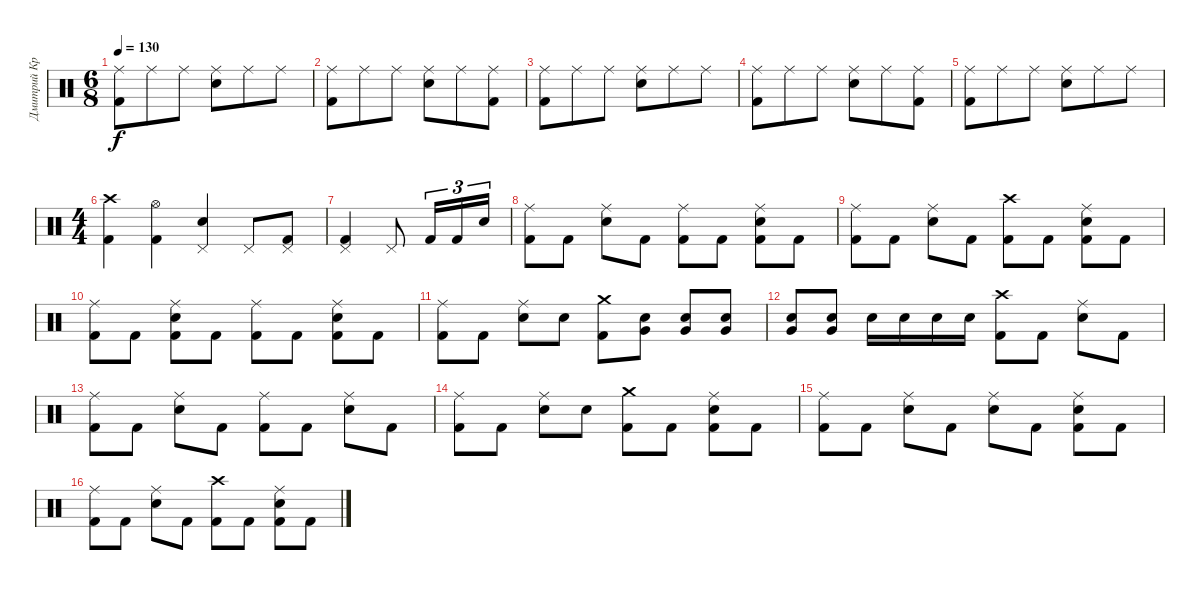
\track ("Дмитрий Кривенков" "Дмитрий Кр") {instrument percussion}
\staff {score}
\articulation defaults
\ts (6 8)
\tempo 130
\clef neutral
\ks c
("Ride (middle)" "Kick (hit) 2").8{dy f} "Ride (middle)".8 "Ride (middle)".8 ("Ride (middle)" "Electric Snare (hit)").8 "Ride (middle)".8 "Ride (middle)".8 |
("Ride (middle)" "Kick (hit) 2").8 "Ride (middle)".8 "Ride (middle)".8 ("Ride (middle)" "Electric Snare (hit)").8 "Ride (middle)".8 ("Ride (middle)" "Kick (hit) 2").8 |
("Ride (middle)" "Kick (hit) 2").8 "Ride (middle)".8 "Ride (middle)".8 ("Ride (middle)" "Electric Snare (hit)").8 "Ride (middle)".8 "Ride (middle)".8 |
("Ride (middle)" "Kick (hit) 2").8 "Ride (middle)".8 "Ride (middle)".8 ("Ride (middle)" "Electric Snare (hit)").8 "Ride (middle)".8 ("Ride (middle)" "Kick (hit) 2").8 |
("Ride (middle)" "Kick (hit) 2").8 "Ride (middle)".8 "Ride (middle)".8 ("Ride (middle)" "Electric Snare (hit)").8 "Ride (middle)".8 "Ride (middle)".8 |
\ts (4 4)
("Kick (hit) 2" "Crash high (hit)").4 ("Kick (hit) 2" "Hi-Hat (open)").4 ("Electric Snare (hit)" "Pedal Hi-Hat (hit)").4 "Pedal Hi-Hat (hit)".8 ("Kick (hit) 2" "Pedal Hi-Hat (hit)").8 |
("Kick (hit) 2" "Pedal Hi-Hat (hit)").4 "Pedal Hi-Hat (hit)".8 "Kick (hit) 2".16{tu (3 2)} "Kick (hit) 2".16{tu (3 2)} "Electric Snare (hit)".16{tu (3 2)} |
("Kick (hit) 2" "Ride (middle)").8 "Kick (hit) 2".8 ("Ride (middle)" "Electric Snare (hit)").8 "Kick (hit) 2".8 ("Ride (middle)" "Kick (hit) 2").8 "Kick (hit) 2".8 ("Ride (middle)" "Electric Snare (hit)" "Kick (hit) 2").8 "Kick (hit) 2".8 |
("Ride (middle)" "Kick (hit) 2").8 "Kick (hit) 2".8 ("Ride (middle)" "Electric Snare (hit)").8 "Kick (hit) 2".8 ("Kick (hit) 2" "Crash high (hit)").8 "Kick (hit) 2".8 ("Ride (middle)" "Kick (hit) 2" "Electric Snare (hit)").8 "Kick (hit) 2".8 |
("Ride (middle)" "Kick (hit) 2").8 "Kick (hit) 2".8 ("Kick (hit) 2" "Electric Snare (hit)" "Ride (middle)").8 "Kick (hit) 2".8 ("Ride (middle)" "Kick (hit) 2").8 "Kick (hit) 2".8 ("Kick (hit) 2" "Electric Snare (hit)" "Ride (middle)").8 "Kick (hit) 2".8 |
("Kick (hit) 2" "Ride (middle)").8 "Kick (hit) 2".8 ("Ride (middle)" "Electric Snare (hit)").8 "Electric Snare (hit)".8 ("Kick (hit) 2" "Crash medium (hit)").8 ("Electric Snare (hit)" "Very Low Tom (hit)").8 ("Very Low Tom (hit)" "Electric Snare (hit)").8 ("Electric Snare (hit)" "Very Low Tom (hit)").8 |
("Electric Snare (hit)" "Very Low Tom (hit)").8 ("Very Low Tom (hit)" "Electric Snare (hit)").8 "Electric Snare (hit)".16 "Electric Snare (hit)".16 "Electric Snare (hit)".16 "Electric Snare (hit)".16 ("Crash high (hit)" "Kick (hit) 2").8 "Kick (hit) 2".8 ("Ride (middle)" "Electric Snare (hit)").8 "Kick (hit) 2".8 |
("Ride (middle)" "Kick (hit) 2").8 "Kick (hit) 2".8 ("Ride (middle)" "Electric Snare (hit)").8 "Kick (hit) 2".8 ("Kick (hit) 2" "Ride (middle)").8 "Kick (hit) 2".8 ("Ride (middle)" "Electric Snare (hit)").8 "Kick (hit) 2".8 |
("Kick (hit) 2" "Ride (middle)").8 "Kick (hit) 2".8 ("Electric Snare (hit)" "Ride (middle)").8 "Electric Snare (hit)".8 ("Crash medium (hit)" "Kick (hit) 2").8 "Kick (hit) 2".8 ("Ride (middle)" "Kick (hit) 2" "Electric Snare (hit)").8 "Kick (hit) 2".8 |
("Kick (hit) 2" "Ride (middle)").8 "Kick (hit) 2".8 ("Ride (middle)" "Electric Snare (hit)").8 "Kick (hit) 2".8 ("Ride (middle)" "Electric Snare (hit)").8 "Kick (hit) 2".8 ("Ride (middle)" "Electric Snare (hit)" "Kick (hit) 2").8 "Kick (hit) 2".8 |
("Ride (middle)" "Kick (hit) 2").8 "Kick (hit) 2".8 ("Ride (middle)" "Electric Snare (hit)").8 "Kick (hit) 2".8 ("Kick (hit) 2" "Crash high (hit)").8 "Kick (hit) 2".8 ("Ride (middle)" "Kick (hit) 2" "Electric Snare (hit)").8 "Kick (hit) 2".8
